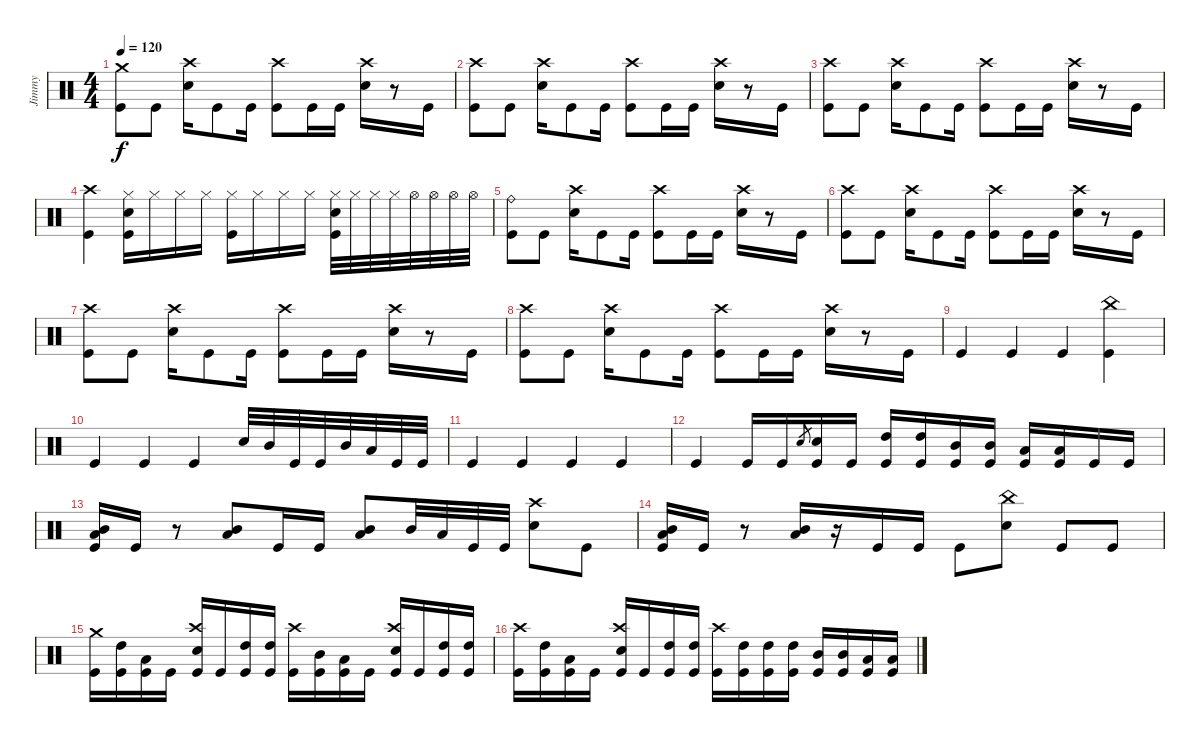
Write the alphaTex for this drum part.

\track ("Jimmy" "Jimmy") {instrument percussion}
\staff {score}
\articulation defaults
\ts (4 4)
\tempo 120
\clef neutral
\ks c
("Crash medium (hit)" "Kick (hit)").8{dy f} "Kick (hit)".8 ("Crash high (hit)" "Snare (hit) 2").16 "Kick (hit)".8 "Kick (hit)".16 ("Crash high (hit)" "Kick (hit)").8 "Kick (hit)".16 "Kick (hit)".16 ("Snare (hit) 2" "Crash high (hit)").16 r.8 "Kick (hit)".16 |
("Kick (hit)" "Crash high (hit)").8 "Kick (hit)".8 ("Crash high (hit)" "Snare (hit) 2").16 "Kick (hit)".8 "Kick (hit)".16 ("Crash high (hit)" "Kick (hit)").8 "Kick (hit)".16 "Kick (hit)".16 ("Snare (hit) 2" "Crash high (hit)").16 r.8 "Kick (hit)".16 |
("Kick (hit)" "Crash high (hit)").8 "Kick (hit)".8 ("Crash high (hit)" "Snare (hit) 2").16 "Kick (hit)".8 "Kick (hit)".16 ("Crash high (hit)" "Kick (hit)").8 "Kick (hit)".16 "Kick (hit)".16 ("Snare (hit) 2" "Crash high (hit)").16 r.8 "Kick (hit)".16 |
("Crash high (hit)" "Kick (hit)").4 ("Hi-Hat (closed)" "Snare (hit) 2" "Kick (hit)").16 "Hi-Hat (closed)".16 "Hi-Hat (closed)".16 "Hi-Hat (closed)".16 ("Hi-Hat (closed)" "Kick (hit)").16 "Hi-Hat (closed)".16 "Hi-Hat (closed)".16 "Hi-Hat (closed)".16 ("Hi-Hat (closed)" "Kick (hit)" "Snare (hit) 2").32 "Hi-Hat (closed)".32 "Hi-Hat (closed)".32 "Hi-Hat (closed)".32 "Hi-Hat (open)".32 "Hi-Hat (open)".32 "Hi-Hat (open)".32 "Hi-Hat (open)".32 |
("Kick (hit)" "Ride (bell)").8 "Kick (hit)".8 ("Crash high (hit)" "Snare (hit) 2").16 "Kick (hit)".8 "Kick (hit)".16 ("Crash high (hit)" "Kick (hit)").8 "Kick (hit)".16 "Kick (hit)".16 ("Snare (hit) 2" "Crash high (hit)").16 r.8 "Kick (hit)".16 |
("Kick (hit)" "Crash high (hit)").8 "Kick (hit)".8 ("Crash high (hit)" "Snare (hit) 2").16 "Kick (hit)".8 "Kick (hit)".16 ("Crash high (hit)" "Kick (hit)").8 "Kick (hit)".16 "Kick (hit)".16 ("Snare (hit) 2" "Crash high (hit)").16 r.8 "Kick (hit)".16 |
("Kick (hit)" "Crash high (hit)").8 "Kick (hit)".8 ("Crash high (hit)" "Snare (hit) 2").16 "Kick (hit)".8 "Kick (hit)".16 ("Crash high (hit)" "Kick (hit)").8 "Kick (hit)".16 "Kick (hit)".16 ("Snare (hit) 2" "Crash high (hit)").16 r.8 "Kick (hit)".16 |
("Kick (hit)" "Crash high (hit)").8 "Kick (hit)".8 ("Crash high (hit)" "Snare (hit) 2").16 "Kick (hit)".8 "Kick (hit)".16 ("Crash high (hit)" "Kick (hit)").8 "Kick (hit)".16 "Kick (hit)".16 ("Snare (hit) 2" "Crash high (hit)").16 r.8 "Kick (hit)".16 |
"Kick (hit)".4 "Kick (hit)".4 "Kick (hit)".4 ("Kick (hit)" "China (hit)").4 |
"Kick (hit)".4 "Kick (hit)".4 "Kick (hit)".4 "Snare (hit) 2".32 "Mid Tom (hit)".32 "Kick (hit)".32 "Kick (hit)".32 "Mid Tom (hit)".32 "Low Tom (hit)".32 "Kick (hit)".32 "Kick (hit)".32 |
"Kick (hit)".4 "Kick (hit)".4 "Kick (hit)".4 "Kick (hit)".4 |
"Kick (hit)".4 "Kick (hit)".16 "Kick (hit)".16 "Snare (hit) 2".8{gr} ("Kick (hit)" "Snare (hit) 2").16 "Kick (hit)".16 ("High Tom (hit)" "Kick (hit)").16 ("High Tom (hit)" "Kick (hit)").16 ("Mid Tom (hit)" "Kick (hit)").16 ("Mid Tom (hit)" "Kick (hit)").16 ("Low Tom (hit)" "Kick (hit)").16 ("Low Tom (hit)" "Kick (hit)").16 "Kick (hit)".16 "Kick (hit)".16 |
("Kick (hit)" "Mid Tom (hit)" "Low Tom (hit)").16 "Kick (hit)".16 r.8 ("Mid Tom (hit)" "Low Tom (hit)").8 "Kick (hit)".16 "Kick (hit)".16 ("Low Tom (hit)" "Mid Tom (hit)").8 "Mid Tom (hit)".32 "Low Tom (hit)".32 "Kick (hit)".32 "Kick (hit)".32 ("Snare (hit) 2" "Crash high (hit)").8 "Kick (hit)".8 |
("Kick (hit)" "Low Tom (hit)" "Mid Tom (hit)").16 "Kick (hit)".16 r.8 ("Low Tom (hit)" "Mid Tom (hit)").16 r.16 "Kick (hit)".16 "Kick (hit)".16 "Kick (hit)".8 ("Snare (hit) 2" "China (hit)").8 "Kick (hit)".8 "Kick (hit)".8 |
("Kick (hit)" "Crash medium (hit)").16 ("Kick (hit)" "High Tom (hit)").16 ("Kick (hit)" "Low Tom (hit)").16 "Kick (hit)".16 ("Snare (hit) 2" "Crash high (hit)" "Kick (hit)").16 "Kick (hit)".16 ("High Tom (hit)" "Kick (hit)").16 ("High Tom (hit)" "Kick (hit)").16 ("Crash high (hit)" "Kick (hit)").16 ("Mid Tom (hit)" "Kick (hit)").16 ("Low Tom (hit)" "Kick (hit)").16 "Kick (hit)".16 ("Snare (hit) 2" "Crash high (hit)" "Kick (hit)").16 "Kick (hit)".16 ("High Tom (hit)" "Kick (hit)").16 ("High Tom (hit)" "Kick (hit)").16 |
("Kick (hit)" "Crash high (hit)").16 ("Kick (hit)" "High Tom (hit)").16 ("Kick (hit)" "Low Tom (hit)").16 "Kick (hit)".16 ("Snare (hit) 2" "Crash high (hit)" "Kick (hit)").16 "Kick (hit)".16 ("High Tom (hit)" "Kick (hit)").16 ("High Tom (hit)" "Kick (hit)").16 ("Crash high (hit)" "Kick (hit)").16 ("High Tom (hit)" "Kick (hit)").16 ("High Tom (hit)" "Kick (hit)").16 ("High Tom (hit)" "Kick (hit)").16 ("Mid Tom (hit)" "Kick (hit)").16 ("Mid Tom (hit)" "Kick (hit)").16 ("Low Tom (hit)" "Kick (hit)").16 ("Low Tom (hit)" "Kick (hit)").16
